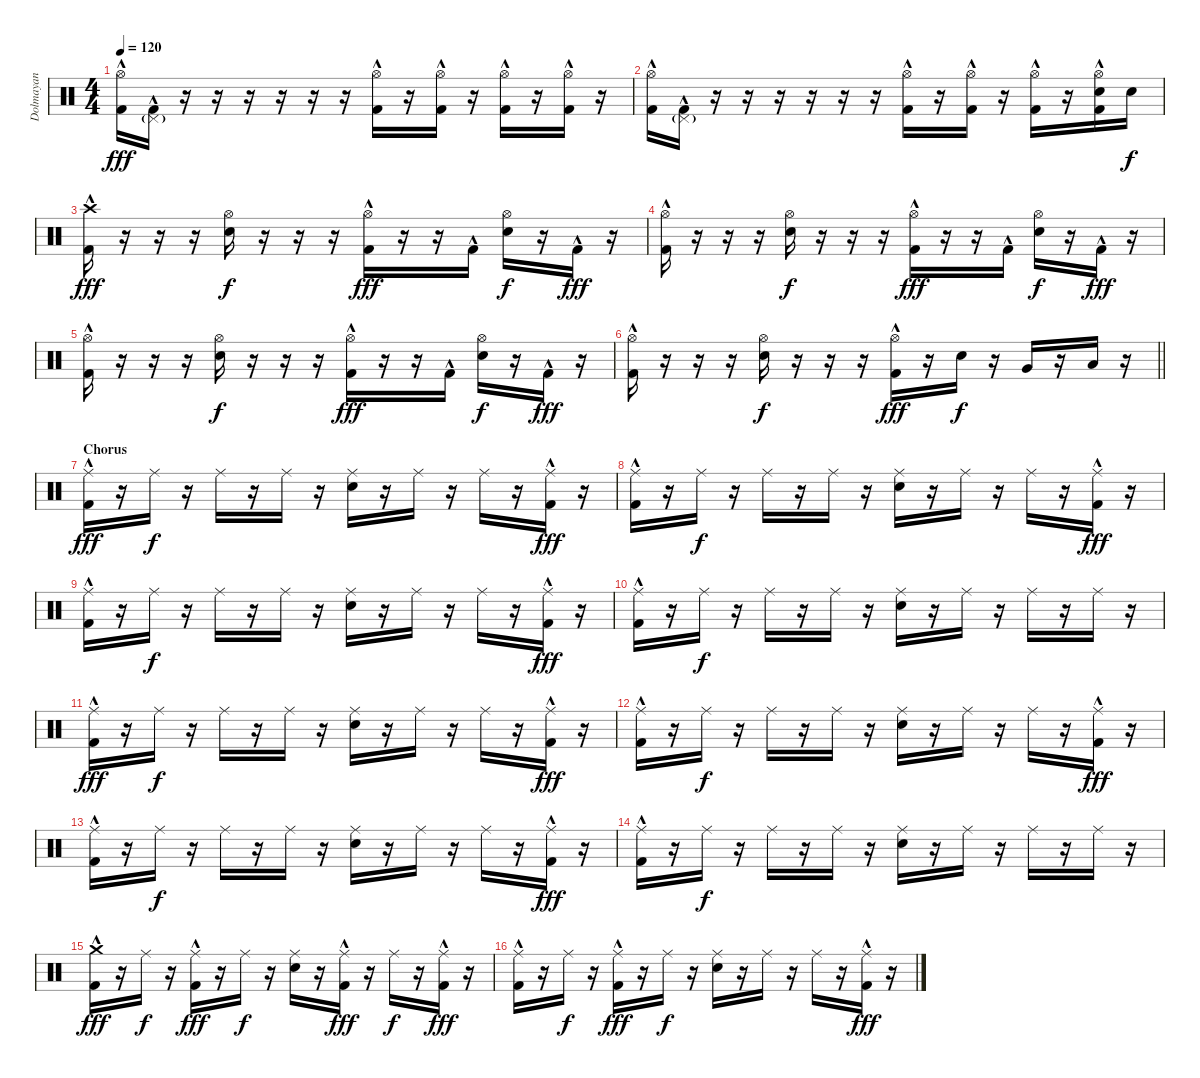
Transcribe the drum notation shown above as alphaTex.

\track ("Dolmayan" "Dolmayan") {instrument percussion}
\staff {score}
\articulation defaults
\ts (4 4)
\tempo 120
\clef neutral
\ks c
("Hi-Hat (open)" "Kick (hit) 2"{hac}).16{dy fff} ("Pedal Hi-Hat (hit)"{g} "Kick (hit) 2"{hac}).16 r.16 r.16 r.16 r.16 r.16 r.16 ("Hi-Hat (open)" "Kick (hit) 2"{hac}).16 r.16 ("Hi-Hat (open)" "Kick (hit) 2"{hac}).16 r.16 ("Hi-Hat (open)" "Kick (hit) 2"{hac}).16 r.16 ("Hi-Hat (open)" "Kick (hit) 2"{hac}).16 r.16 |
("Hi-Hat (open)" "Kick (hit) 2"{hac}).16 ("Pedal Hi-Hat (hit)"{g} "Kick (hit) 2"{hac}).16 r.16 r.16 r.16 r.16 r.16 r.16 ("Hi-Hat (open)" "Kick (hit) 2"{hac}).16 r.16 ("Hi-Hat (open)" "Kick (hit) 2"{hac}).16 r.16 ("Hi-Hat (open)" "Kick (hit) 2"{hac}).16 r.16 ("Hi-Hat (open)" "Snare (hit) 2" "Kick (hit) 2"{hac}).16 "Snare (hit) 2".16{dy f} |
("Crash high (hit)" "Kick (hit) 2"{hac}).16{dy fff} r.16 r.16 r.16 ("Hi-Hat (open)" "Snare (hit) 2").16{dy f} r.16 r.16 r.16 ("Hi-Hat (open)" "Kick (hit) 2"{hac}).16{dy fff} r.16 r.16 "Kick (hit) 2"{hac}.16 ("Hi-Hat (open)" "Snare (hit) 2").16{dy f} r.16 "Kick (hit) 2"{hac}.16{dy fff} r.16 |
("Hi-Hat (open)" "Kick (hit) 2"{hac}).16 r.16 r.16 r.16 ("Hi-Hat (open)" "Snare (hit) 2").16{dy f} r.16 r.16 r.16 ("Hi-Hat (open)" "Kick (hit) 2"{hac}).16{dy fff} r.16 r.16 "Kick (hit) 2"{hac}.16 ("Hi-Hat (open)" "Snare (hit) 2").16{dy f} r.16 "Kick (hit) 2"{hac}.16{dy fff} r.16 |
("Hi-Hat (open)" "Kick (hit) 2"{hac}).16 r.16 r.16 r.16 ("Hi-Hat (open)" "Snare (hit) 2").16{dy f} r.16 r.16 r.16 ("Hi-Hat (open)" "Kick (hit) 2"{hac}).16{dy fff} r.16 r.16 "Kick (hit) 2"{hac}.16 ("Hi-Hat (open)" "Snare (hit) 2").16{dy f} r.16 "Kick (hit) 2"{hac}.16{dy fff} r.16 |
\barLineRight lightlight
("Hi-Hat (open)" "Kick (hit) 2"{hac}).16 r.16 r.16 r.16 ("Hi-Hat (open)" "Snare (hit) 2").16{dy f} r.16 r.16 r.16 ("Hi-Hat (open)" "Kick (hit) 2"{hac}).16{dy fff} r.16 "Snare (hit) 2".16{dy f} r.16 "Very Low Tom (hit)".16 r.16 "Low Floor Tom (hit)".16 r.16 |
\section ("" "Chorus")
("Ride (middle)" "Kick (hit) 2"{hac}).16{dy fff} r.16 "Ride (middle)".16{dy f} r.16 "Ride (middle)".16 r.16 "Ride (middle)".16 r.16 ("Ride (middle)" "Snare (hit) 2").16 r.16 "Ride (middle)".16 r.16 "Ride (middle)".16 r.16 ("Ride (middle)" "Kick (hit) 2"{hac}).16{dy fff} r.16 |
("Ride (middle)" "Kick (hit) 2"{hac}).16 r.16 "Ride (middle)".16{dy f} r.16 "Ride (middle)".16 r.16 "Ride (middle)".16 r.16 ("Ride (middle)" "Snare (hit) 2").16 r.16 "Ride (middle)".16 r.16 "Ride (middle)".16 r.16 ("Ride (middle)" "Kick (hit) 2"{hac}).16{dy fff} r.16 |
("Ride (middle)" "Kick (hit) 2"{hac}).16 r.16 "Ride (middle)".16{dy f} r.16 "Ride (middle)".16 r.16 "Ride (middle)".16 r.16 ("Ride (middle)" "Snare (hit) 2").16 r.16 "Ride (middle)".16 r.16 "Ride (middle)".16 r.16 ("Ride (middle)" "Kick (hit) 2"{hac}).16{dy fff} r.16 |
("Ride (middle)" "Kick (hit) 2"{hac}).16 r.16 "Ride (middle)".16{dy f} r.16 "Ride (middle)".16 r.16 "Ride (middle)".16 r.16 ("Ride (middle)" "Snare (hit) 2").16 r.16 "Ride (middle)".16 r.16 "Ride (middle)".16 r.16 "Ride (middle)".16 r.16 |
("Ride (middle)" "Kick (hit) 2"{hac}).16{dy fff} r.16 "Ride (middle)".16{dy f} r.16 "Ride (middle)".16 r.16 "Ride (middle)".16 r.16 ("Ride (middle)" "Snare (hit) 2").16 r.16 "Ride (middle)".16 r.16 "Ride (middle)".16 r.16 ("Ride (middle)" "Kick (hit) 2"{hac}).16{dy fff} r.16 |
("Ride (middle)" "Kick (hit) 2"{hac}).16 r.16 "Ride (middle)".16{dy f} r.16 "Ride (middle)".16 r.16 "Ride (middle)".16 r.16 ("Ride (middle)" "Snare (hit) 2").16 r.16 "Ride (middle)".16 r.16 "Ride (middle)".16 r.16 ("Ride (middle)" "Kick (hit) 2"{hac}).16{dy fff} r.16 |
("Ride (middle)" "Kick (hit) 2"{hac}).16 r.16 "Ride (middle)".16{dy f} r.16 "Ride (middle)".16 r.16 "Ride (middle)".16 r.16 ("Ride (middle)" "Snare (hit) 2").16 r.16 "Ride (middle)".16 r.16 "Ride (middle)".16 r.16 ("Ride (middle)" "Kick (hit) 2"{hac}).16{dy fff} r.16 |
("Ride (middle)" "Kick (hit) 2"{hac}).16 r.16 "Ride (middle)".16{dy f} r.16 "Ride (middle)".16 r.16 "Ride (middle)".16 r.16 ("Ride (middle)" "Snare (hit) 2").16 r.16 "Ride (middle)".16 r.16 "Ride (middle)".16 r.16 "Ride (middle)".16 r.16 |
("Crash medium (hit)" "Kick (hit) 2"{hac}).16{dy fff} r.16 "Ride (middle)".16{dy f} r.16 ("Ride (middle)" "Kick (hit) 2"{hac}).16{dy fff} r.16 "Ride (middle)".16{dy f} r.16 ("Ride (middle)" "Snare (hit) 2").16 r.16 ("Ride (middle)" "Kick (hit) 2"{hac}).16{dy fff} r.16 "Ride (middle)".16{dy f} r.16 ("Ride (middle)" "Kick (hit) 2"{hac}).16{dy fff} r.16 |
("Ride (middle)" "Kick (hit) 2"{hac}).16 r.16 "Ride (middle)".16{dy f} r.16 ("Ride (middle)" "Kick (hit) 2"{hac}).16{dy fff} r.16 "Ride (middle)".16{dy f} r.16 ("Ride (middle)" "Snare (hit) 2").16 r.16 "Ride (middle)".16 r.16 "Ride (middle)".16 r.16 ("Ride (middle)" "Kick (hit) 2"{hac}).16{dy fff} r.16
